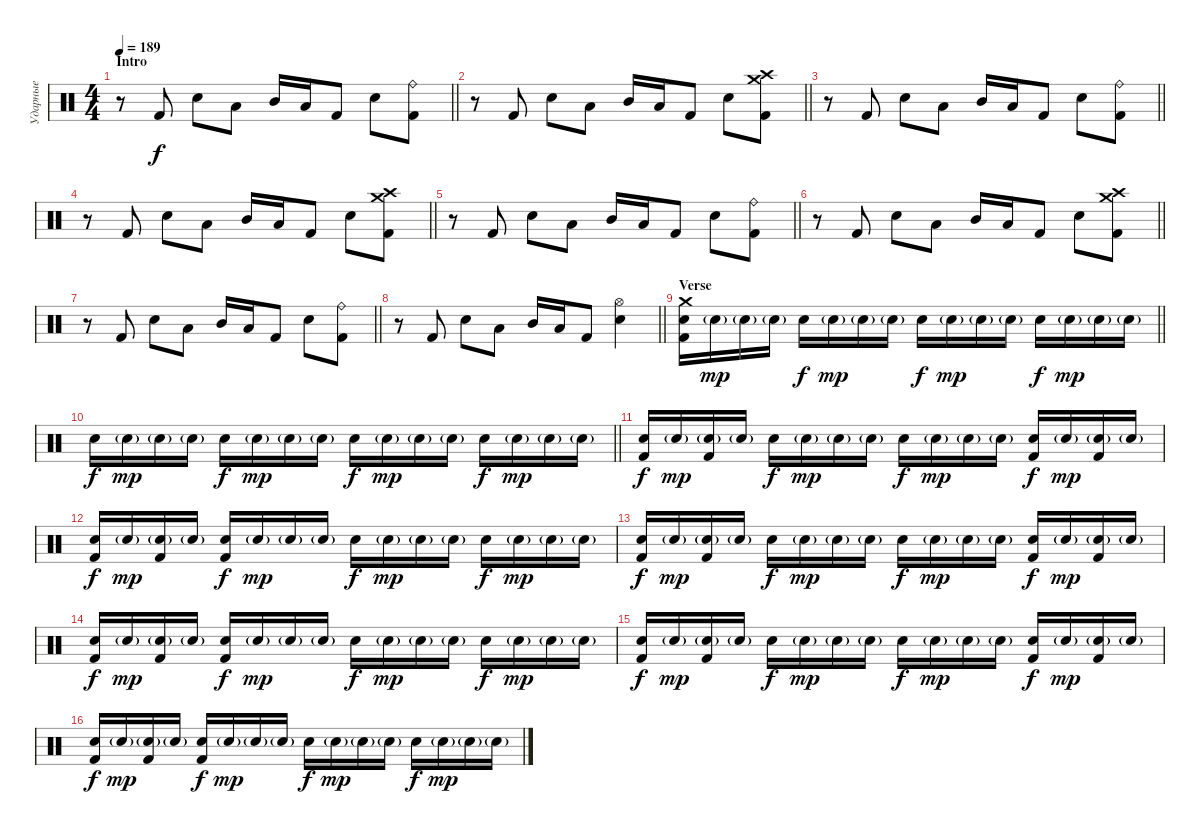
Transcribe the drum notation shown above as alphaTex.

\track ("Ударные" "Ударные") {instrument percussion}
\staff {score}
\articulation defaults
\ts (4 4)
\section ("" "Intro")
\tempo 189
\clef neutral
\barLineRight lightlight
\ks c
r.8{dy f} "Kick (hit) 2".8 "Electric Snare (hit)".8 "Low Tom (hit)".8 "Mid Tom (hit)".16 "Low Tom (hit)".16 "Kick (hit) 2".8 "Electric Snare (hit)".8 ("Ride (bell)" "Kick (hit) 2").8 |
\barLineRight lightlight
r.8 "Kick (hit) 2".8 "Electric Snare (hit)".8 "Low Tom (hit)".8 "Mid Tom (hit)".16 "Low Tom (hit)".16 "Kick (hit) 2".8 "Electric Snare (hit)".8 ("Crash medium (hit)" "Crash high (hit)" "Kick (hit) 2").8 |
\barLineRight lightlight
r.8 "Kick (hit) 2".8 "Electric Snare (hit)".8 "Low Tom (hit)".8 "Mid Tom (hit)".16 "Low Tom (hit)".16 "Kick (hit) 2".8 "Electric Snare (hit)".8 ("Ride (bell)" "Kick (hit) 2").8 |
\barLineRight lightlight
r.8 "Kick (hit) 2".8 "Electric Snare (hit)".8 "Low Tom (hit)".8 "Mid Tom (hit)".16 "Low Tom (hit)".16 "Kick (hit) 2".8 "Electric Snare (hit)".8 ("Crash medium (hit)" "Crash high (hit)" "Kick (hit) 2").8 |
\barLineRight lightlight
r.8 "Kick (hit) 2".8 "Electric Snare (hit)".8 "Low Tom (hit)".8 "Mid Tom (hit)".16 "Low Tom (hit)".16 "Kick (hit) 2".8 "Electric Snare (hit)".8 ("Ride (bell)" "Kick (hit) 2").8 |
\barLineRight lightlight
r.8 "Kick (hit) 2".8 "Electric Snare (hit)".8 "Low Tom (hit)".8 "Mid Tom (hit)".16 "Low Tom (hit)".16 "Kick (hit) 2".8 "Electric Snare (hit)".8 ("Crash medium (hit)" "Crash high (hit)" "Kick (hit) 2").8 |
\barLineRight lightlight
r.8 "Kick (hit) 2".8 "Electric Snare (hit)".8 "Low Tom (hit)".8 "Mid Tom (hit)".16 "Low Tom (hit)".16 "Kick (hit) 2".8 "Electric Snare (hit)".8 ("Ride (bell)" "Kick (hit) 2").8 |
\barLineRight lightlight
r.8 "Kick (hit) 2".8 "Electric Snare (hit)".8 "Low Tom (hit)".8 "Mid Tom (hit)".16 "Low Tom (hit)".16 "Kick (hit) 2".8 ("Hi-Hat (open)" "Electric Snare (hit)").4 |
\section ("" "Verse")
\barLineRight lightlight
("Crash medium (hit)" "Electric Snare (hit)" "Kick (hit) 2").16 "Electric Snare (hit)"{g}.16{dy mp} "Electric Snare (hit)"{g}.16 "Electric Snare (hit)"{g}.16 "Electric Snare (hit)".16{dy f} "Electric Snare (hit)"{g}.16{dy mp} "Electric Snare (hit)"{g}.16 "Electric Snare (hit)"{g}.16 "Electric Snare (hit)".16{dy f} "Electric Snare (hit)"{g}.16{dy mp} "Electric Snare (hit)"{g}.16 "Electric Snare (hit)"{g}.16 "Electric Snare (hit)".16{dy f} "Electric Snare (hit)"{g}.16{dy mp} "Electric Snare (hit)"{g}.16 "Electric Snare (hit)"{g}.16 |
\barLineRight lightlight "Electric Snare (hit)".16{dy f} "Electric Snare (hit)"{g}.16{dy mp} "Electric Snare (hit)"{g}.16 "Electric Snare (hit)"{g}.16 "Electric Snare (hit)".16{dy f} "Electric Snare (hit)"{g}.16{dy mp} "Electric Snare (hit)"{g}.16 "Electric Snare (hit)"{g}.16 "Electric Snare (hit)".16{dy f} "Electric Snare (hit)"{g}.16{dy mp} "Electric Snare (hit)"{g}.16 "Electric Snare (hit)"{g}.16 "Electric Snare (hit)".16{dy f} "Electric Snare (hit)"{g}.16{dy mp} "Electric Snare (hit)"{g}.16 "Electric Snare (hit)"{g}.16
|
("Electric Snare (hit)" "Kick (hit) 2").16{dy f} "Electric Snare (hit)"{g}.16{dy mp} ("Electric Snare (hit)"{g} "Kick (hit) 2").16 "Electric Snare (hit)"{g}.16 "Electric Snare (hit)".16{dy f} "Electric Snare (hit)"{g}.16{dy mp} "Electric Snare (hit)"{g}.16 "Electric Snare (hit)"{g}.16 "Electric Snare (hit)".16{dy f} "Electric Snare (hit)"{g}.16{dy mp} "Electric Snare (hit)"{g}.16 "Electric Snare (hit)"{g}.16 ("Electric Snare (hit)" "Kick (hit) 2").16{dy f} "Electric Snare (hit)"{g}.16{dy mp} ("Electric Snare (hit)"{g} "Kick (hit) 2").16 "Electric Snare (hit)"{g}.16 |
("Electric Snare (hit)" "Kick (hit) 2").16{dy f} "Electric Snare (hit)"{g}.16{dy mp} ("Electric Snare (hit)"{g} "Kick (hit) 2").16 "Electric Snare (hit)"{g}.16 ("Electric Snare (hit)" "Kick (hit) 2").16{dy f} "Electric Snare (hit)"{g}.16{dy mp} "Electric Snare (hit)"{g}.16 "Electric Snare (hit)"{g}.16 "Electric Snare (hit)".16{dy f} "Electric Snare (hit)"{g}.16{dy mp} "Electric Snare (hit)"{g}.16 "Electric Snare (hit)"{g}.16 "Electric Snare (hit)".16{dy f} "Electric Snare (hit)"{g}.16{dy mp} "Electric Snare (hit)"{g}.16 "Electric Snare (hit)"{g}.16 |
("Electric Snare (hit)" "Kick (hit) 2").16{dy f} "Electric Snare (hit)"{g}.16{dy mp} ("Electric Snare (hit)"{g} "Kick (hit) 2").16 "Electric Snare (hit)"{g}.16 "Electric Snare (hit)".16{dy f} "Electric Snare (hit)"{g}.16{dy mp} "Electric Snare (hit)"{g}.16 "Electric Snare (hit)"{g}.16 "Electric Snare (hit)".16{dy f} "Electric Snare (hit)"{g}.16{dy mp} "Electric Snare (hit)"{g}.16 "Electric Snare (hit)"{g}.16 ("Electric Snare (hit)" "Kick (hit) 2").16{dy f} "Electric Snare (hit)"{g}.16{dy mp} ("Electric Snare (hit)"{g} "Kick (hit) 2").16 "Electric Snare (hit)"{g}.16 |
("Electric Snare (hit)" "Kick (hit) 2").16{dy f} "Electric Snare (hit)"{g}.16{dy mp} ("Electric Snare (hit)"{g} "Kick (hit) 2").16 "Electric Snare (hit)"{g}.16 ("Electric Snare (hit)" "Kick (hit) 2").16{dy f} "Electric Snare (hit)"{g}.16{dy mp} "Electric Snare (hit)"{g}.16 "Electric Snare (hit)"{g}.16 "Electric Snare (hit)".16{dy f} "Electric Snare (hit)"{g}.16{dy mp} "Electric Snare (hit)"{g}.16 "Electric Snare (hit)"{g}.16 "Electric Snare (hit)".16{dy f} "Electric Snare (hit)"{g}.16{dy mp} "Electric Snare (hit)"{g}.16 "Electric Snare (hit)"{g}.16 |
("Electric Snare (hit)" "Kick (hit) 2").16{dy f} "Electric Snare (hit)"{g}.16{dy mp} ("Electric Snare (hit)"{g} "Kick (hit) 2").16 "Electric Snare (hit)"{g}.16 "Electric Snare (hit)".16{dy f} "Electric Snare (hit)"{g}.16{dy mp} "Electric Snare (hit)"{g}.16 "Electric Snare (hit)"{g}.16 "Electric Snare (hit)".16{dy f} "Electric Snare (hit)"{g}.16{dy mp} "Electric Snare (hit)"{g}.16 "Electric Snare (hit)"{g}.16 ("Electric Snare (hit)" "Kick (hit) 2").16{dy f} "Electric Snare (hit)"{g}.16{dy mp} ("Electric Snare (hit)"{g} "Kick (hit) 2").16 "Electric Snare (hit)"{g}.16 |
("Electric Snare (hit)" "Kick (hit) 2").16{dy f} "Electric Snare (hit)"{g}.16{dy mp} ("Electric Snare (hit)"{g} "Kick (hit) 2").16 "Electric Snare (hit)"{g}.16 ("Electric Snare (hit)" "Kick (hit) 2").16{dy f} "Electric Snare (hit)"{g}.16{dy mp} "Electric Snare (hit)"{g}.16 "Electric Snare (hit)"{g}.16 "Electric Snare (hit)".16{dy f} "Electric Snare (hit)"{g}.16{dy mp} "Electric Snare (hit)"{g}.16 "Electric Snare (hit)"{g}.16 "Electric Snare (hit)".16{dy f} "Electric Snare (hit)"{g}.16{dy mp} "Electric Snare (hit)"{g}.16 "Electric Snare (hit)"{g}.16
